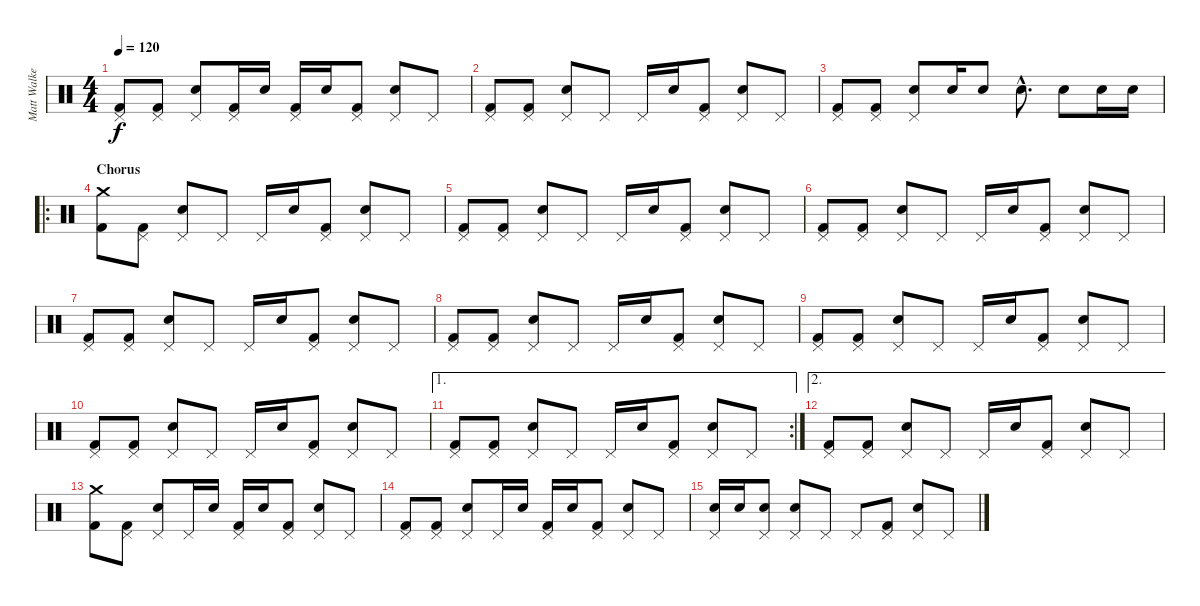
\track ("Matt Walker - Drums" "Matt Walke") {instrument percussion}
\staff {score}
\articulation defaults
\ts (4 4)
\tempo 120
\clef neutral
\ks c
("Pedal Hi-Hat (hit)" "Kick (hit) 2").8{dy f} ("Pedal Hi-Hat (hit)" "Kick (hit) 2").8 ("Pedal Hi-Hat (hit)" "Electric Snare (hit)").8 ("Pedal Hi-Hat (hit)" "Kick (hit) 2").16 "Electric Snare (hit)".16 ("Pedal Hi-Hat (hit)" "Kick (hit) 2").16 "Electric Snare (hit)".16 ("Pedal Hi-Hat (hit)" "Kick (hit) 2").8 ("Pedal Hi-Hat (hit)" "Electric Snare (hit)").8 "Pedal Hi-Hat (hit)".8 |
("Pedal Hi-Hat (hit)" "Kick (hit) 2").8 ("Pedal Hi-Hat (hit)" "Kick (hit) 2").8 ("Pedal Hi-Hat (hit)" "Electric Snare (hit)").8 "Pedal Hi-Hat (hit)".8 "Pedal Hi-Hat (hit)".16 "Electric Snare (hit)".16 ("Pedal Hi-Hat (hit)" "Kick (hit) 2").8 ("Pedal Hi-Hat (hit)" "Electric Snare (hit)").8 "Pedal Hi-Hat (hit)".8 |
("Pedal Hi-Hat (hit)" "Kick (hit) 2").8 ("Pedal Hi-Hat (hit)" "Kick (hit) 2").8 ("Pedal Hi-Hat (hit)" "Electric Snare (hit)").8 "Electric Snare (hit)".16 "Electric Snare (hit)".8 "Electric Snare (hit)"{hac}.8{d} "Electric Snare (hit)".8 "Electric Snare (hit)".16 "Electric Snare (hit)".16 |
\ro
\section ("" "Chorus")
("Crash medium (hit)" "Kick (hit) 2").8 ("Pedal Hi-Hat (hit)" "Kick (hit) 2").8 ("Pedal Hi-Hat (hit)" "Electric Snare (hit)").8 "Pedal Hi-Hat (hit)".8 "Pedal Hi-Hat (hit)".16 "Electric Snare (hit)".16 ("Pedal Hi-Hat (hit)" "Kick (hit) 2").8 ("Pedal Hi-Hat (hit)" "Electric Snare (hit)").8 "Pedal Hi-Hat (hit)".8 |
("Pedal Hi-Hat (hit)" "Kick (hit) 2").8 ("Pedal Hi-Hat (hit)" "Kick (hit) 2").8 ("Pedal Hi-Hat (hit)" "Electric Snare (hit)").8 "Pedal Hi-Hat (hit)".8 "Pedal Hi-Hat (hit)".16 "Electric Snare (hit)".16 ("Pedal Hi-Hat (hit)" "Kick (hit) 2").8 ("Pedal Hi-Hat (hit)" "Electric Snare (hit)").8 "Pedal Hi-Hat (hit)".8 |
("Pedal Hi-Hat (hit)" "Kick (hit) 2").8 ("Pedal Hi-Hat (hit)" "Kick (hit) 2").8 ("Pedal Hi-Hat (hit)" "Electric Snare (hit)").8 "Pedal Hi-Hat (hit)".8 "Pedal Hi-Hat (hit)".16 "Electric Snare (hit)".16 ("Pedal Hi-Hat (hit)" "Kick (hit) 2").8 ("Pedal Hi-Hat (hit)" "Electric Snare (hit)").8 "Pedal Hi-Hat (hit)".8 |
("Pedal Hi-Hat (hit)" "Kick (hit) 2").8 ("Pedal Hi-Hat (hit)" "Kick (hit) 2").8 ("Pedal Hi-Hat (hit)" "Electric Snare (hit)").8 "Pedal Hi-Hat (hit)".8 "Pedal Hi-Hat (hit)".16 "Electric Snare (hit)".16 ("Pedal Hi-Hat (hit)" "Kick (hit) 2").8 ("Pedal Hi-Hat (hit)" "Electric Snare (hit)").8 "Pedal Hi-Hat (hit)".8 |
("Pedal Hi-Hat (hit)" "Kick (hit) 2").8 ("Pedal Hi-Hat (hit)" "Kick (hit) 2").8 ("Pedal Hi-Hat (hit)" "Electric Snare (hit)").8 "Pedal Hi-Hat (hit)".8 "Pedal Hi-Hat (hit)".16 "Electric Snare (hit)".16 ("Pedal Hi-Hat (hit)" "Kick (hit) 2").8 ("Pedal Hi-Hat (hit)" "Electric Snare (hit)").8 "Pedal Hi-Hat (hit)".8 |
("Pedal Hi-Hat (hit)" "Kick (hit) 2").8 ("Pedal Hi-Hat (hit)" "Kick (hit) 2").8 ("Pedal Hi-Hat (hit)" "Electric Snare (hit)").8 "Pedal Hi-Hat (hit)".8 "Pedal Hi-Hat (hit)".16 "Electric Snare (hit)".16 ("Pedal Hi-Hat (hit)" "Kick (hit) 2").8 ("Pedal Hi-Hat (hit)" "Electric Snare (hit)").8 "Pedal Hi-Hat (hit)".8 |
("Pedal Hi-Hat (hit)" "Kick (hit) 2").8 ("Pedal Hi-Hat (hit)" "Kick (hit) 2").8 ("Pedal Hi-Hat (hit)" "Electric Snare (hit)").8 "Pedal Hi-Hat (hit)".8 "Pedal Hi-Hat (hit)".16 "Electric Snare (hit)".16 ("Pedal Hi-Hat (hit)" "Kick (hit) 2").8 ("Pedal Hi-Hat (hit)" "Electric Snare (hit)").8 "Pedal Hi-Hat (hit)".8 |
\ae 1
\rc 2
("Pedal Hi-Hat (hit)" "Kick (hit) 2").8 ("Pedal Hi-Hat (hit)" "Kick (hit) 2").8 ("Pedal Hi-Hat (hit)" "Electric Snare (hit)").8 "Pedal Hi-Hat (hit)".8 "Pedal Hi-Hat (hit)".16 "Electric Snare (hit)".16 ("Pedal Hi-Hat (hit)" "Kick (hit) 2").8 ("Pedal Hi-Hat (hit)" "Electric Snare (hit)").8 "Pedal Hi-Hat (hit)".8 |
\ae 2
("Pedal Hi-Hat (hit)" "Kick (hit) 2").8 ("Pedal Hi-Hat (hit)" "Kick (hit) 2").8 ("Pedal Hi-Hat (hit)" "Electric Snare (hit)").8 "Pedal Hi-Hat (hit)".8 "Pedal Hi-Hat (hit)".16 "Electric Snare (hit)".16 ("Pedal Hi-Hat (hit)" "Kick (hit) 2").8 ("Pedal Hi-Hat (hit)" "Electric Snare (hit)").8 "Pedal Hi-Hat (hit)".8 |
("Crash medium (hit)" "Kick (hit) 2").8 ("Pedal Hi-Hat (hit)" "Kick (hit) 2").8 ("Pedal Hi-Hat (hit)" "Electric Snare (hit)").8 "Pedal Hi-Hat (hit)".16 "Electric Snare (hit)".16 ("Pedal Hi-Hat (hit)" "Kick (hit) 2").16 "Electric Snare (hit)".16 ("Pedal Hi-Hat (hit)" "Kick (hit) 2").8 ("Pedal Hi-Hat (hit)" "Electric Snare (hit)").8 "Pedal Hi-Hat (hit)".8 |
("Pedal Hi-Hat (hit)" "Kick (hit) 2").8 ("Pedal Hi-Hat (hit)" "Kick (hit) 2").8 ("Pedal Hi-Hat (hit)" "Electric Snare (hit)").8 "Pedal Hi-Hat (hit)".16 "Electric Snare (hit)".16 ("Pedal Hi-Hat (hit)" "Kick (hit) 2").16 "Electric Snare (hit)".16 ("Pedal Hi-Hat (hit)" "Kick (hit) 2").8 ("Pedal Hi-Hat (hit)" "Electric Snare (hit)").8 "Pedal Hi-Hat (hit)".8 |
("Pedal Hi-Hat (hit)" "Electric Snare (hit)").16 "Electric Snare (hit)".16 ("Pedal Hi-Hat (hit)" "Electric Snare (hit)").8 ("Pedal Hi-Hat (hit)" "Electric Snare (hit)").8 "Pedal Hi-Hat (hit)".8 "Pedal Hi-Hat (hit)".8 ("Pedal Hi-Hat (hit)" "Kick (hit) 2").8 ("Pedal Hi-Hat (hit)" "Electric Snare (hit)").8 "Pedal Hi-Hat (hit)".8
